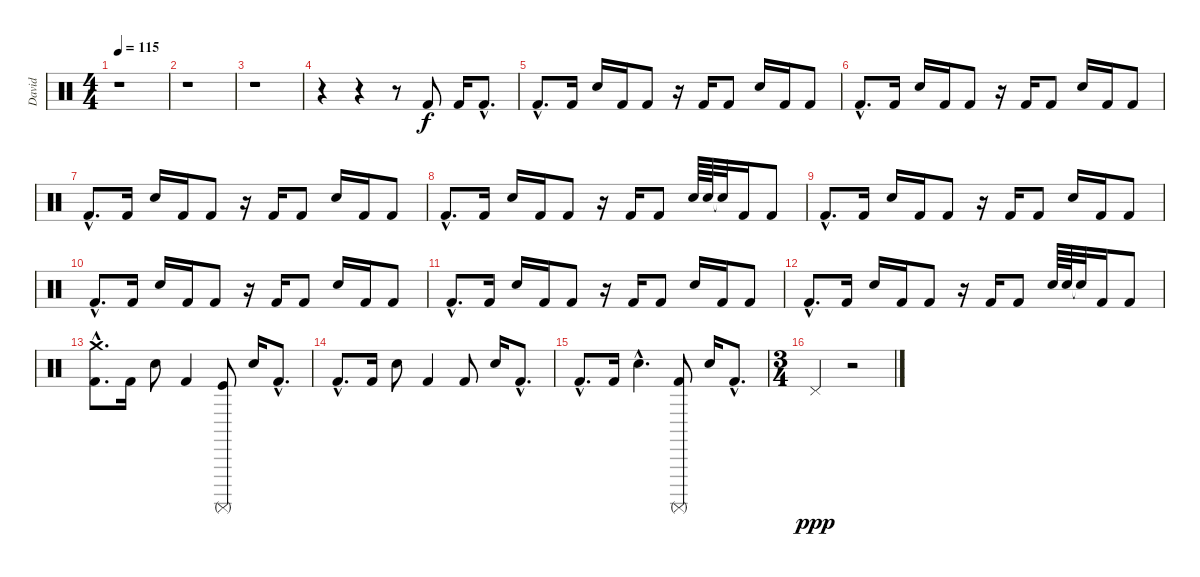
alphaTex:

\track ("David" "David") {instrument percussion}
\staff {score}
\articulation defaults
\ts (4 4)
\tempo 115
\clef neutral
\ks c
r.1{dy f} |
r.1 |
r.1 |
r.4 r.4 r.8 "Kick (hit) 2".8 "Kick (hit) 2".16 "Kick (hit) 2"{hac}.8{d} |
"Kick (hit) 2"{hac}.8{d} "Kick (hit) 2".16 "Snare (hit) 2".16 "Kick (hit) 2".16 "Kick (hit) 2".8 r.16 "Kick (hit) 2".16 "Kick (hit) 2".8 "Snare (hit) 2".16 "Kick (hit) 2".16 "Kick (hit) 2".8 |
"Kick (hit) 2"{hac}.8{d} "Kick (hit) 2".16 "Snare (hit) 2".16 "Kick (hit) 2".16 "Kick (hit) 2".8 r.16 "Kick (hit) 2".16 "Kick (hit) 2".8 "Snare (hit) 2".16 "Kick (hit) 2".16 "Kick (hit) 2".8 |
"Kick (hit) 2"{hac}.8{d} "Kick (hit) 2".16 "Snare (hit) 2".16 "Kick (hit) 2".16 "Kick (hit) 2".8 r.16 "Kick (hit) 2".16 "Kick (hit) 2".8 "Snare (hit) 2".16 "Kick (hit) 2".16 "Kick (hit) 2".8 |
"Kick (hit) 2"{hac}.8{d} "Kick (hit) 2".16 "Snare (hit) 2".16 "Kick (hit) 2".16 "Kick (hit) 2".8 r.16 "Kick (hit) 2".16 "Kick (hit) 2".8 "Snare (hit) 2".64 "Snare (hit) 2".64 "Snare (hit)"{t}.32 "Kick (hit) 2".16 "Kick (hit) 2".8 |
"Kick (hit) 2"{hac}.8{d} "Kick (hit) 2".16 "Snare (hit) 2".16 "Kick (hit) 2".16 "Kick (hit) 2".8 r.16 "Kick (hit) 2".16 "Kick (hit) 2".8 "Snare (hit) 2".16 "Kick (hit) 2".16 "Kick (hit) 2".8 |
"Kick (hit) 2"{hac}.8{d} "Kick (hit) 2".16 "Snare (hit) 2".16 "Kick (hit) 2".16 "Kick (hit) 2".8 r.16 "Kick (hit) 2".16 "Kick (hit) 2".8 "Snare (hit) 2".16 "Kick (hit) 2".16 "Kick (hit) 2".8 |
"Kick (hit) 2"{hac}.8{d} "Kick (hit) 2".16 "Snare (hit) 2".16 "Kick (hit) 2".16 "Kick (hit) 2".8 r.16 "Kick (hit) 2".16 "Kick (hit) 2".8 "Snare (hit) 2".16 "Kick (hit) 2".16 "Kick (hit) 2".8 |
"Kick (hit) 2"{hac}.8{d} "Kick (hit) 2".16 "Snare (hit) 2".16 "Kick (hit) 2".16 "Kick (hit) 2".8 r.16 "Kick (hit) 2".16 "Kick (hit) 2".8 "Snare (hit) 2".64 "Snare (hit) 2".64 "Snare (hit)"{t}.32 "Kick (hit) 2".16 "Kick (hit) 2".8 |
("Crash medium (hit)"{hac} "Kick (hit) 2"{hac}).8{d} "Kick (hit) 2".16 "Snare (hit) 2".8 "Kick (hit) 2".4 ("Kick (hit)" "Surdo (mute)").8 "Snare (hit) 2".16 "Kick (hit) 2"{hac}.8{d} |
"Kick (hit) 2"{hac}.8{d} "Kick (hit) 2".16 "Snare (hit) 2".8 "Kick (hit) 2".4 "Kick (hit) 2".8 "Snare (hit) 2".16 "Kick (hit) 2"{hac}.8{d} |
"Kick (hit) 2"{hac}.8{d} "Kick (hit) 2".16 "Snare (hit) 2"{hac}.4{d} ("Surdo (mute)" "Kick (hit) 2").8 "Snare (hit) 2".16 "Kick (hit) 2"{hac}.8{d} |
\ts (3 4)
"Pedal Hi-Hat (hit)".4{dy ppp} r.2
